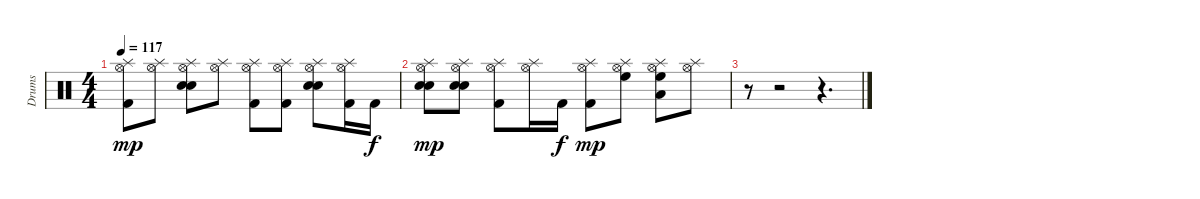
\track ("Drums" "Drums") {instrument percussion}
\staff {score}
\articulation defaults
\ts (4 4)
\tempo 117
\clef neutral
\ks c
("Splash (hit)" "Hi-Hat (open)" "Kick (hit) 2").8{dy mp} ("Splash (hit)" "Hi-Hat (open)").8 ("Splash (hit)" "Hi-Hat (open)" "Snare (hit) 2" "Snare (hit) 2").8 ("Splash (hit)" "Hi-Hat (open)").8 ("Splash (hit)" "Hi-Hat (open)" "Kick (hit) 2").8 ("Splash (hit)" "Hi-Hat (open)" "Kick (hit) 2").8 ("Splash (hit)" "Hi-Hat (open)" "Snare (hit) 2" "Snare (hit) 2").8 ("Splash (hit)" "Hi-Hat (open)" "Kick (hit) 2").16 "Kick (hit) 2".16{dy f} |
("Splash (hit)" "Hi-Hat (open)" "Snare (hit) 2" "Snare (hit) 2").8{dy mp} ("Splash (hit)" "Hi-Hat (open)" "Snare (hit) 2" "Snare (hit) 2").8 ("Splash (hit)" "Hi-Hat (open)" "Kick (hit) 2").8 ("Splash (hit)" "Hi-Hat (open)").16 "Kick (hit) 2".16{dy f} ("Splash (hit)" "Hi-Hat (open)" "Kick (hit) 2").8{dy mp} ("Splash (hit)" "Hi-Hat (open)" "High Floor Tom (hit)").8 ("Splash (hit)" "Hi-Hat (open)" "Low Tom (hit)" "High Floor Tom (hit)").8 ("Splash (hit)" "Hi-Hat (open)").8 |
r.8 r.2 r.4{d}
